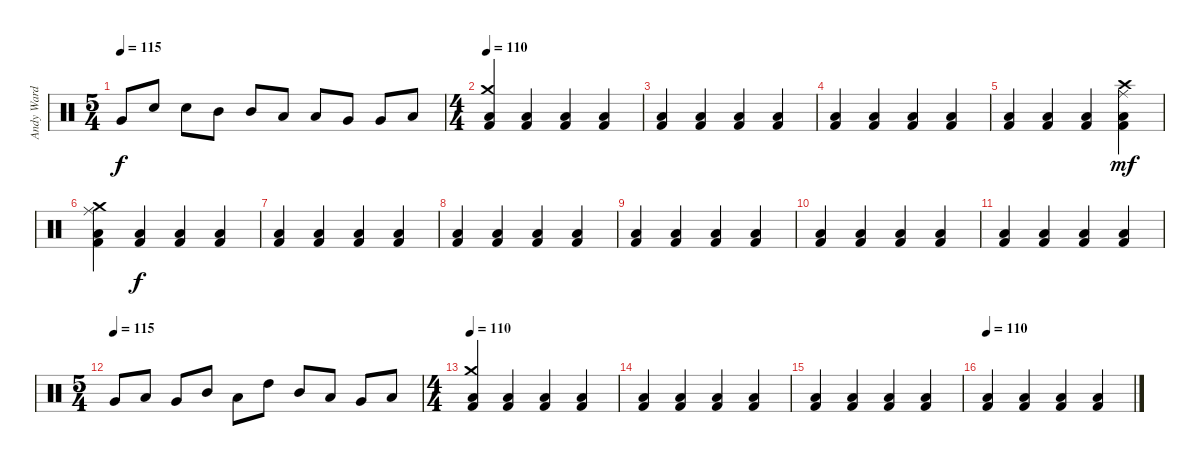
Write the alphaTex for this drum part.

\track ("Andy Ward - Drums" "Andy Ward ") {instrument percussion}
\staff {score}
\articulation defaults
\ts (5 4)
\tempo 115
\clef neutral
\ks c "Very Low Tom (hit)".8{dy f} "Electric Snare (hit)".8 "Electric Snare (hit)".8 "Mid Tom (hit)".8 "Mid Tom (hit)".8 "Low Tom (hit)".8 "Low Tom (hit)".8 "Very Low Tom (hit)".8 "Very Low Tom (hit)".8 "Low Floor Tom (hit)".8
|
\ts (4 4)
\tempo 110
("Crash medium (hit)" "Low Floor Tom (hit)" "Kick (hit) 2").4 ("Low Floor Tom (hit)" "Kick (hit) 2").4 ("Low Floor Tom (hit)" "Kick (hit) 2").4 ("Low Floor Tom (hit)" "Kick (hit) 2").4 |
("Low Floor Tom (hit)" "Kick (hit) 2").4 ("Low Floor Tom (hit)" "Kick (hit) 2").4 ("Low Floor Tom (hit)" "Kick (hit) 2").4 ("Low Floor Tom (hit)" "Kick (hit) 2").4 |
("Low Floor Tom (hit)" "Kick (hit) 2").4 ("Low Floor Tom (hit)" "Kick (hit) 2").4 ("Low Floor Tom (hit)" "Kick (hit) 2").4 ("Low Floor Tom (hit)" "Kick (hit) 2").4 |
("Low Floor Tom (hit)" "Kick (hit) 2").4 ("Low Floor Tom (hit)" "Kick (hit) 2").4 ("Low Floor Tom (hit)" "Kick (hit) 2").4 ("Ride (middle)" "Crash high (hit)" "Low Floor Tom (hit)" "Kick (hit) 2").4{dy mf} |
("Ride (middle)" "Crash medium (hit)" "Low Floor Tom (hit)" "Kick (hit) 2").4 ("Low Floor Tom (hit)" "Kick (hit) 2").4{dy f} ("Low Floor Tom (hit)" "Kick (hit) 2").4 ("Low Floor Tom (hit)" "Kick (hit) 2").4 |
("Low Floor Tom (hit)" "Kick (hit) 2").4 ("Low Floor Tom (hit)" "Kick (hit) 2").4 ("Low Floor Tom (hit)" "Kick (hit) 2").4 ("Low Floor Tom (hit)" "Kick (hit) 2").4 |
("Low Floor Tom (hit)" "Kick (hit) 2").4 ("Low Floor Tom (hit)" "Kick (hit) 2").4 ("Low Floor Tom (hit)" "Kick (hit) 2").4 ("Low Floor Tom (hit)" "Kick (hit) 2").4 |
("Low Floor Tom (hit)" "Kick (hit) 2").4 ("Low Floor Tom (hit)" "Kick (hit) 2").4 ("Low Floor Tom (hit)" "Kick (hit) 2").4 ("Low Floor Tom (hit)" "Kick (hit) 2").4 |
("Low Floor Tom (hit)" "Kick (hit) 2").4 ("Low Floor Tom (hit)" "Kick (hit) 2").4 ("Low Floor Tom (hit)" "Kick (hit) 2").4 ("Low Floor Tom (hit)" "Kick (hit) 2").4 |
("Low Floor Tom (hit)" "Kick (hit) 2").4 ("Low Floor Tom (hit)" "Kick (hit) 2").4 ("Low Floor Tom (hit)" "Kick (hit) 2").4 ("Low Floor Tom (hit)" "Kick (hit) 2").4 |
\ts (5 4)
\tempo (115)
"Very Low Tom (hit)".8 "Low Tom (hit)".8 "Very Low Tom (hit)".8 "Mid Tom (hit)".8 "Low Tom (hit)".8 "High Tom (hit)".8 "Mid Tom (hit)".8 "Low Tom (hit)".8 "Very Low Tom (hit)".8 "Low Floor Tom (hit)".8 |
\ts (4 4)
\tempo 110
("Crash medium (hit)" "Low Floor Tom (hit)" "Kick (hit) 2").4 ("Low Floor Tom (hit)" "Kick (hit) 2").4 ("Low Floor Tom (hit)" "Kick (hit) 2").4 ("Low Floor Tom (hit)" "Kick (hit) 2").4 |
("Low Floor Tom (hit)" "Kick (hit) 2").4 ("Low Floor Tom (hit)" "Kick (hit) 2").4 ("Low Floor Tom (hit)" "Kick (hit) 2").4 ("Low Floor Tom (hit)" "Kick (hit) 2").4 |
("Low Floor Tom (hit)" "Kick (hit) 2").4 ("Low Floor Tom (hit)" "Kick (hit) 2").4 ("Low Floor Tom (hit)" "Kick (hit) 2").4 ("Low Floor Tom (hit)" "Kick (hit) 2").4 |
\tempo 110
("Low Floor Tom (hit)" "Kick (hit) 2").4 ("Low Floor Tom (hit)" "Kick (hit) 2").4 ("Low Floor Tom (hit)" "Kick (hit) 2").4 ("Low Floor Tom (hit)" "Kick (hit) 2").4
